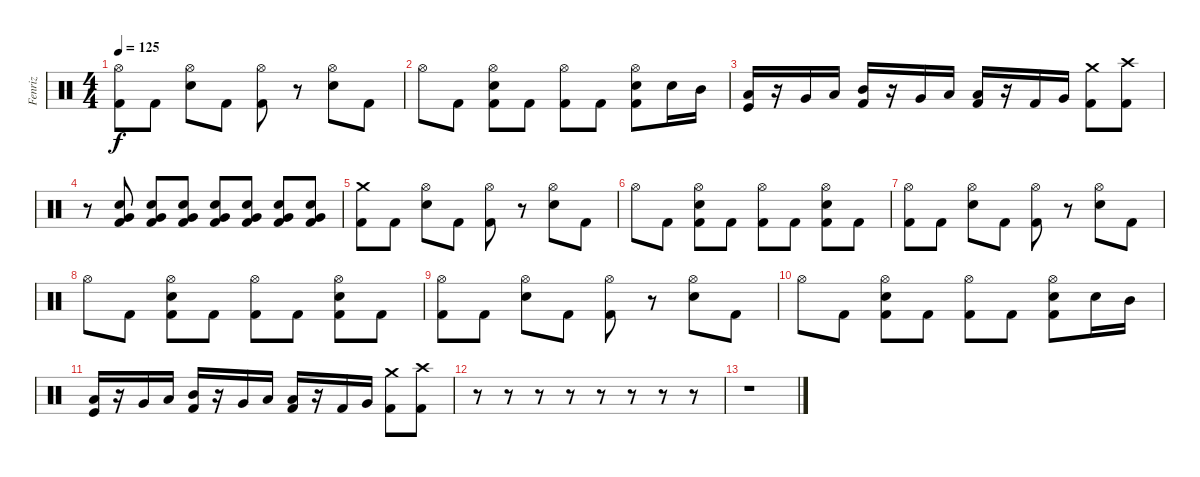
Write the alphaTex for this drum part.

\track ("Fenriz" "Fenriz") {instrument percussion}
\staff {score}
\articulation defaults
\ts (4 4)
\tempo 125
\clef neutral
\ks c
("Hi-Hat (open)" "Kick (hit) 2").8{dy f} "Kick (hit) 2".8 ("Hi-Hat (open)" "Electric Snare (hit)").8 "Kick (hit) 2".8 ("Hi-Hat (open)" "Kick (hit) 2").8 r.8 ("Electric Snare (hit)" "Hi-Hat (open)").8 "Kick (hit) 2".8 |
"Hi-Hat (open)".8 "Kick (hit) 2".8 ("Electric Snare (hit)" "Hi-Hat (open)" "Kick (hit) 2").8 "Kick (hit) 2".8 ("Hi-Hat (open)" "Kick (hit) 2").8 "Kick (hit) 2".8 ("Electric Snare (hit)" "Hi-Hat (open)" "Kick (hit) 2").8 "Snare (hit) 2".16 "Mid Tom (hit)".16 |
("Low Tom (hit)" "Kick (hit)").16 r.16 "Very Low Tom (hit)".16 "Low Tom (hit)".16 ("Mid Tom (hit)" "Kick (hit) 2").16 r.16 "Very Low Tom (hit)".16 "Low Floor Tom (hit)".16 ("Low Tom (hit)" "Kick (hit) 2").16 r.16 "Kick (hit) 2".16 "Very Low Tom (hit)".16 ("Crash medium (hit)" "Kick (hit) 2").8 ("Crash high (hit)" "Kick (hit) 2").8 |
r.8 ("Snare (hit) 2" "Very Low Tom (hit)" "Kick (hit) 2").8 ("Snare (hit) 2" "Very Low Tom (hit)" "Kick (hit) 2").8 ("Snare (hit) 2" "Very Low Tom (hit)" "Kick (hit) 2").8 ("Snare (hit) 2" "Very Low Tom (hit)" "Kick (hit) 2").8 ("Snare (hit) 2" "Very Low Tom (hit)" "Kick (hit) 2").8 ("Snare (hit) 2" "Very Low Tom (hit)" "Kick (hit) 2").8 ("Snare (hit) 2" "Very Low Tom (hit)" "Kick (hit) 2").8 |
("Crash medium (hit)" "Kick (hit) 2").8 "Kick (hit) 2".8 ("Hi-Hat (open)" "Electric Snare (hit)").8 "Kick (hit) 2".8 ("Hi-Hat (open)" "Kick (hit) 2").8 r.8 ("Electric Snare (hit)" "Hi-Hat (open)").8 "Kick (hit) 2".8 |
"Hi-Hat (open)".8 "Kick (hit) 2".8 ("Electric Snare (hit)" "Hi-Hat (open)" "Kick (hit) 2").8 "Kick (hit) 2".8 ("Hi-Hat (open)" "Kick (hit) 2").8 "Kick (hit) 2".8 ("Electric Snare (hit)" "Hi-Hat (open)" "Kick (hit) 2").8 "Kick (hit) 2".8 |
("Hi-Hat (open)" "Kick (hit) 2").8 "Kick (hit) 2".8 ("Hi-Hat (open)" "Electric Snare (hit)").8 "Kick (hit) 2".8 ("Hi-Hat (open)" "Kick (hit) 2").8 r.8 ("Electric Snare (hit)" "Hi-Hat (open)").8 "Kick (hit) 2".8 |
"Hi-Hat (open)".8 "Kick (hit) 2".8 ("Electric Snare (hit)" "Hi-Hat (open)" "Kick (hit) 2").8 "Kick (hit) 2".8 ("Hi-Hat (open)" "Kick (hit) 2").8 "Kick (hit) 2".8 ("Electric Snare (hit)" "Hi-Hat (open)" "Kick (hit) 2").8 "Kick (hit) 2".8 |
("Hi-Hat (open)" "Kick (hit) 2").8 "Kick (hit) 2".8 ("Hi-Hat (open)" "Electric Snare (hit)").8 "Kick (hit) 2".8 ("Hi-Hat (open)" "Kick (hit) 2").8 r.8 ("Electric Snare (hit)" "Hi-Hat (open)").8 "Kick (hit) 2".8 |
"Hi-Hat (open)".8 "Kick (hit) 2".8 ("Electric Snare (hit)" "Hi-Hat (open)" "Kick (hit) 2").8 "Kick (hit) 2".8 ("Hi-Hat (open)" "Kick (hit) 2").8 "Kick (hit) 2".8 ("Electric Snare (hit)" "Hi-Hat (open)" "Kick (hit) 2").8 "Snare (hit) 2".16 "Mid Tom (hit)".16 |
("Low Tom (hit)" "Kick (hit)").16 r.16 "Very Low Tom (hit)".16 "Low Tom (hit)".16 ("Mid Tom (hit)" "Kick (hit) 2").16 r.16 "Very Low Tom (hit)".16 "Low Floor Tom (hit)".16 ("Low Tom (hit)" "Kick (hit) 2").16 r.16 "Kick (hit) 2".16 "Very Low Tom (hit)".16 ("Crash medium (hit)" "Kick (hit) 2").8 ("Crash high (hit)" "Kick (hit) 2").8 |
r.8 r.8 r.8 r.8 r.8 r.8 r.8 r.8 |
r.1
